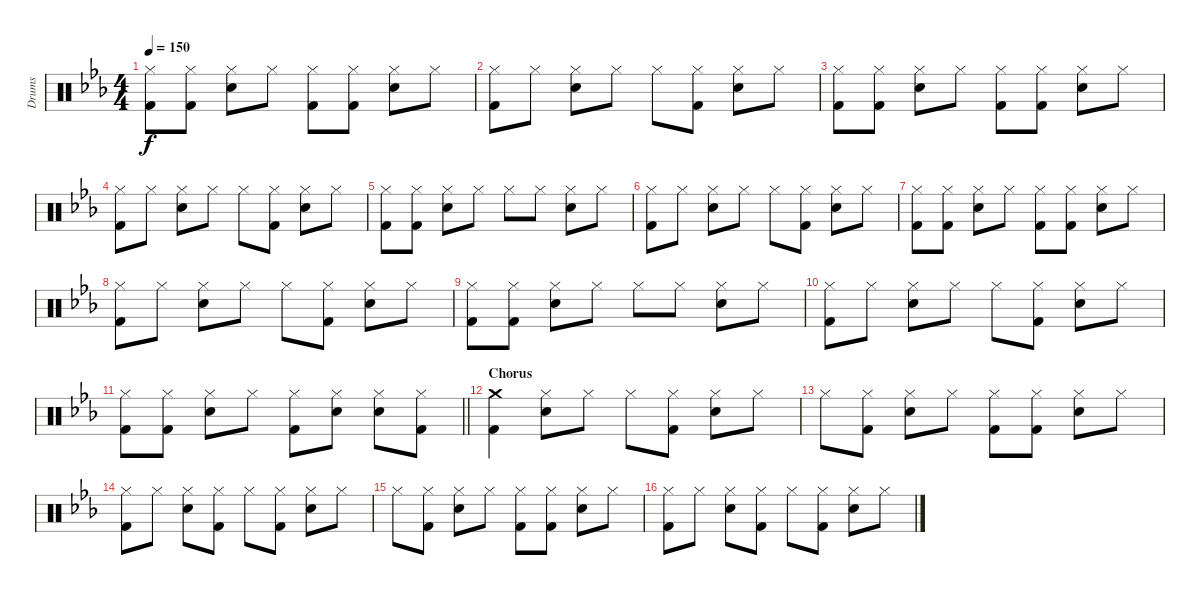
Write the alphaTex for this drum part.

\track ("Drums" "Drums") {instrument percussion}
\staff {score}
\articulation defaults
\ts (4 4)
\tempo 150
\clef neutral
\ks eb
("Hi-Hat (closed)" "Kick (hit) 2").8{dy f} ("Hi-Hat (closed)" "Kick (hit) 2").8 ("Hi-Hat (closed)" "Electric Snare (hit)").8 "Hi-Hat (closed)".8 ("Hi-Hat (closed)" "Kick (hit) 2").8 ("Hi-Hat (closed)" "Kick (hit) 2").8 ("Hi-Hat (closed)" "Electric Snare (hit)").8 "Hi-Hat (closed)".8 |
("Hi-Hat (closed)" "Kick (hit) 2").8 "Hi-Hat (closed)".8 ("Hi-Hat (closed)" "Electric Snare (hit)").8 "Hi-Hat (closed)".8 "Hi-Hat (closed)".8 ("Hi-Hat (closed)" "Kick (hit) 2").8 ("Hi-Hat (closed)" "Electric Snare (hit)").8 "Hi-Hat (closed)".8 |
("Hi-Hat (closed)" "Kick (hit) 2").8 ("Hi-Hat (closed)" "Kick (hit) 2").8 ("Hi-Hat (closed)" "Electric Snare (hit)").8 "Hi-Hat (closed)".8 ("Hi-Hat (closed)" "Kick (hit) 2").8 ("Hi-Hat (closed)" "Kick (hit) 2").8 ("Hi-Hat (closed)" "Electric Snare (hit)").8 "Hi-Hat (closed)".8 |
("Hi-Hat (closed)" "Kick (hit) 2").8 "Hi-Hat (closed)".8 ("Hi-Hat (closed)" "Electric Snare (hit)").8 "Hi-Hat (closed)".8 "Hi-Hat (closed)".8 ("Hi-Hat (closed)" "Kick (hit) 2").8 ("Hi-Hat (closed)" "Electric Snare (hit)").8 "Hi-Hat (closed)".8 |
("Hi-Hat (closed)" "Kick (hit) 2").8 ("Hi-Hat (closed)" "Kick (hit) 2").8 ("Hi-Hat (closed)" "Electric Snare (hit)").8 "Hi-Hat (closed)".8 "Hi-Hat (closed)".8 "Hi-Hat (closed)".8 ("Hi-Hat (closed)" "Electric Snare (hit)").8 "Hi-Hat (closed)".8 |
("Hi-Hat (closed)" "Kick (hit) 2").8 "Hi-Hat (closed)".8 ("Hi-Hat (closed)" "Electric Snare (hit)").8 "Hi-Hat (closed)".8 "Hi-Hat (closed)".8 ("Hi-Hat (closed)" "Kick (hit) 2").8 ("Hi-Hat (closed)" "Electric Snare (hit)").8 "Hi-Hat (closed)".8 |
("Hi-Hat (closed)" "Kick (hit) 2").8 ("Hi-Hat (closed)" "Kick (hit) 2").8 ("Hi-Hat (closed)" "Electric Snare (hit)").8 "Hi-Hat (closed)".8 ("Hi-Hat (closed)" "Kick (hit) 2").8 ("Hi-Hat (closed)" "Kick (hit) 2").8 ("Hi-Hat (closed)" "Electric Snare (hit)").8 "Hi-Hat (closed)".8 |
("Hi-Hat (closed)" "Kick (hit) 2").8 "Hi-Hat (closed)".8 ("Hi-Hat (closed)" "Electric Snare (hit)").8 "Hi-Hat (closed)".8 "Hi-Hat (closed)".8 ("Hi-Hat (closed)" "Kick (hit) 2").8 ("Hi-Hat (closed)" "Electric Snare (hit)").8 "Hi-Hat (closed)".8 |
("Hi-Hat (closed)" "Kick (hit) 2").8 ("Hi-Hat (closed)" "Kick (hit) 2").8 ("Hi-Hat (closed)" "Electric Snare (hit)").8 "Hi-Hat (closed)".8 "Hi-Hat (closed)".8 "Hi-Hat (closed)".8 ("Hi-Hat (closed)" "Electric Snare (hit)").8 "Hi-Hat (closed)".8 |
("Hi-Hat (closed)" "Kick (hit) 2").8 "Hi-Hat (closed)".8 ("Hi-Hat (closed)" "Electric Snare (hit)").8 "Hi-Hat (closed)".8 "Hi-Hat (closed)".8 ("Hi-Hat (closed)" "Kick (hit) 2").8 ("Hi-Hat (closed)" "Electric Snare (hit)").8 "Hi-Hat (closed)".8 |
\barLineRight lightlight
("Hi-Hat (closed)" "Kick (hit) 2").8 ("Hi-Hat (closed)" "Kick (hit) 2").8 ("Hi-Hat (closed)" "Electric Snare (hit)").8 "Hi-Hat (closed)".8 ("Hi-Hat (closed)" "Kick (hit) 2").8 ("Hi-Hat (closed)" "Electric Snare (hit)").8 ("Hi-Hat (closed)" "Electric Snare (hit)").8 ("Hi-Hat (closed)" "Kick (hit) 2").8 |
\section ("" "Chorus")
("Crash medium (hit)" "Kick (hit) 2").4 ("Hi-Hat (closed)" "Electric Snare (hit)").8 "Hi-Hat (closed)".8 "Hi-Hat (closed)".8 ("Hi-Hat (closed)" "Kick (hit) 2").8 ("Hi-Hat (closed)" "Electric Snare (hit)").8 "Hi-Hat (closed)".8 |
"Hi-Hat (closed)".8 ("Hi-Hat (closed)" "Kick (hit) 2").8 ("Hi-Hat (closed)" "Electric Snare (hit)").8 "Hi-Hat (closed)".8 ("Hi-Hat (closed)" "Kick (hit) 2").8 ("Hi-Hat (closed)" "Kick (hit) 2").8 ("Hi-Hat (closed)" "Electric Snare (hit)").8 "Hi-Hat (closed)".8 |
("Hi-Hat (closed)" "Kick (hit) 2").8 "Hi-Hat (closed)".8 ("Hi-Hat (closed)" "Electric Snare (hit)").8 ("Hi-Hat (closed)" "Kick (hit) 2").8 "Hi-Hat (closed)".8 ("Hi-Hat (closed)" "Kick (hit) 2").8 ("Hi-Hat (closed)" "Electric Snare (hit)").8 "Hi-Hat (closed)".8 |
"Hi-Hat (closed)".8 ("Hi-Hat (closed)" "Kick (hit) 2").8 ("Hi-Hat (closed)" "Electric Snare (hit)").8 "Hi-Hat (closed)".8 ("Hi-Hat (closed)" "Kick (hit) 2").8 ("Hi-Hat (closed)" "Kick (hit) 2").8 ("Hi-Hat (closed)" "Electric Snare (hit)").8 "Hi-Hat (closed)".8 |
("Hi-Hat (closed)" "Kick (hit) 2").8 "Hi-Hat (closed)".8 ("Hi-Hat (closed)" "Electric Snare (hit)").8 ("Hi-Hat (closed)" "Kick (hit) 2").8 "Hi-Hat (closed)".8 ("Hi-Hat (closed)" "Kick (hit) 2").8 ("Hi-Hat (closed)" "Electric Snare (hit)").8 "Hi-Hat (closed)".8
